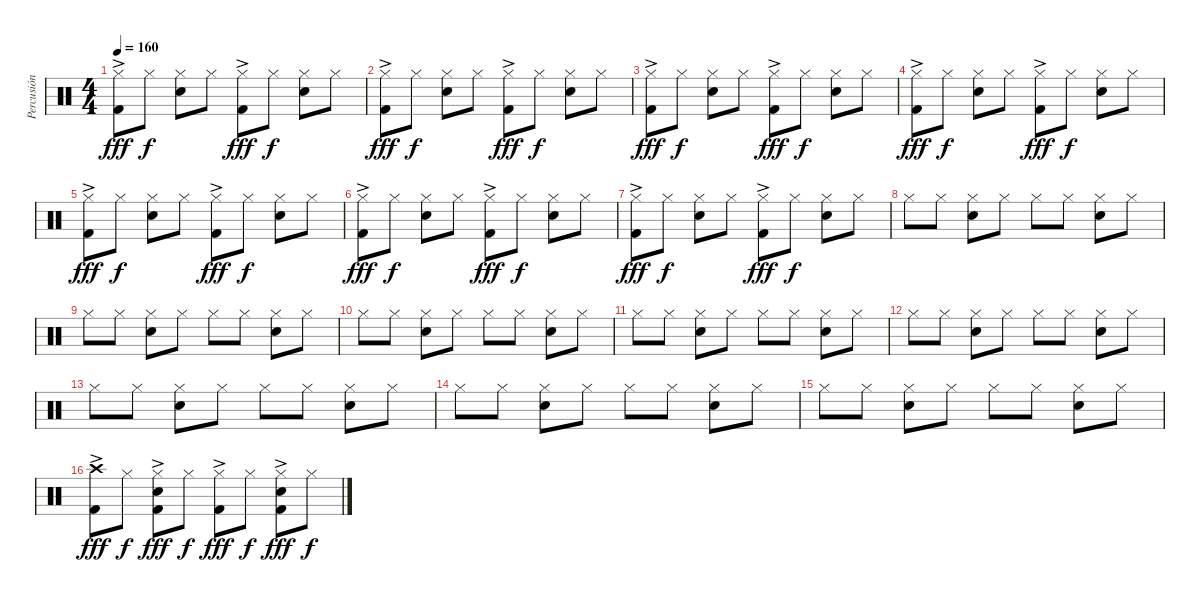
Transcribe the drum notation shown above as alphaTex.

\track ("Percusión" "Percusión") {instrument percussion}
\staff {score}
\articulation defaults
\ts (4 4)
\tempo 160
\clef neutral
\ks c
("Hi-Hat (closed)" "Kick (hit) 2"{ac}).8{dy fff} "Hi-Hat (closed)".8{dy f} ("Hi-Hat (closed)" "Electric Snare (hit)").8 "Hi-Hat (closed)".8 ("Hi-Hat (closed)" "Kick (hit) 2"{ac}).8{dy fff} "Hi-Hat (closed)".8{dy f} ("Hi-Hat (closed)" "Electric Snare (hit)").8 "Hi-Hat (closed)".8 |
("Hi-Hat (closed)" "Kick (hit) 2"{ac}).8{dy fff} "Hi-Hat (closed)".8{dy f} ("Hi-Hat (closed)" "Electric Snare (hit)").8 "Hi-Hat (closed)".8 ("Hi-Hat (closed)" "Kick (hit) 2"{ac}).8{dy fff} "Hi-Hat (closed)".8{dy f} ("Hi-Hat (closed)" "Electric Snare (hit)").8 "Hi-Hat (closed)".8 |
("Hi-Hat (closed)" "Kick (hit) 2"{ac}).8{dy fff} "Hi-Hat (closed)".8{dy f} ("Hi-Hat (closed)" "Electric Snare (hit)").8 "Hi-Hat (closed)".8 ("Hi-Hat (closed)" "Kick (hit) 2"{ac}).8{dy fff} "Hi-Hat (closed)".8{dy f} ("Hi-Hat (closed)" "Electric Snare (hit)").8 "Hi-Hat (closed)".8 |
("Hi-Hat (closed)" "Kick (hit) 2"{ac}).8{dy fff} "Hi-Hat (closed)".8{dy f} ("Hi-Hat (closed)" "Electric Snare (hit)").8 "Hi-Hat (closed)".8 ("Hi-Hat (closed)" "Kick (hit) 2"{ac}).8{dy fff} "Hi-Hat (closed)".8{dy f} ("Hi-Hat (closed)" "Electric Snare (hit)").8 "Hi-Hat (closed)".8 |
("Hi-Hat (closed)" "Kick (hit) 2"{ac}).8{dy fff} "Hi-Hat (closed)".8{dy f} ("Hi-Hat (closed)" "Electric Snare (hit)").8 "Hi-Hat (closed)".8 ("Hi-Hat (closed)" "Kick (hit) 2"{ac}).8{dy fff} "Hi-Hat (closed)".8{dy f} ("Hi-Hat (closed)" "Electric Snare (hit)").8 "Hi-Hat (closed)".8 |
("Hi-Hat (closed)" "Kick (hit) 2"{ac}).8{dy fff} "Hi-Hat (closed)".8{dy f} ("Hi-Hat (closed)" "Electric Snare (hit)").8 "Hi-Hat (closed)".8 ("Hi-Hat (closed)" "Kick (hit) 2"{ac}).8{dy fff} "Hi-Hat (closed)".8{dy f} ("Hi-Hat (closed)" "Electric Snare (hit)").8 "Hi-Hat (closed)".8 |
("Hi-Hat (closed)" "Kick (hit) 2"{ac}).8{dy fff} "Hi-Hat (closed)".8{dy f} ("Hi-Hat (closed)" "Electric Snare (hit)").8 "Hi-Hat (closed)".8 ("Hi-Hat (closed)" "Kick (hit) 2"{ac}).8{dy fff} "Hi-Hat (closed)".8{dy f} ("Hi-Hat (closed)" "Electric Snare (hit)").8 "Hi-Hat (closed)".8 |
"Hi-Hat (closed)".8 "Hi-Hat (closed)".8 ("Hi-Hat (closed)" "Electric Snare (hit)").8 "Hi-Hat (closed)".8 "Hi-Hat (closed)".8 "Hi-Hat (closed)".8 ("Hi-Hat (closed)" "Electric Snare (hit)").8 "Hi-Hat (closed)".8 |
"Hi-Hat (closed)".8 "Hi-Hat (closed)".8 ("Hi-Hat (closed)" "Electric Snare (hit)").8 "Hi-Hat (closed)".8 "Hi-Hat (closed)".8 "Hi-Hat (closed)".8 ("Hi-Hat (closed)" "Electric Snare (hit)").8 "Hi-Hat (closed)".8 |
"Hi-Hat (closed)".8 "Hi-Hat (closed)".8 ("Hi-Hat (closed)" "Electric Snare (hit)").8 "Hi-Hat (closed)".8 "Hi-Hat (closed)".8 "Hi-Hat (closed)".8 ("Hi-Hat (closed)" "Electric Snare (hit)").8 "Hi-Hat (closed)".8 |
"Hi-Hat (closed)".8 "Hi-Hat (closed)".8 ("Hi-Hat (closed)" "Electric Snare (hit)").8 "Hi-Hat (closed)".8 "Hi-Hat (closed)".8 "Hi-Hat (closed)".8 ("Hi-Hat (closed)" "Electric Snare (hit)").8 "Hi-Hat (closed)".8 |
"Hi-Hat (closed)".8 "Hi-Hat (closed)".8 ("Hi-Hat (closed)" "Electric Snare (hit)").8 "Hi-Hat (closed)".8 "Hi-Hat (closed)".8 "Hi-Hat (closed)".8 ("Hi-Hat (closed)" "Electric Snare (hit)").8 "Hi-Hat (closed)".8 |
"Hi-Hat (closed)".8 "Hi-Hat (closed)".8 ("Hi-Hat (closed)" "Electric Snare (hit)").8 "Hi-Hat (closed)".8 "Hi-Hat (closed)".8 "Hi-Hat (closed)".8 ("Hi-Hat (closed)" "Electric Snare (hit)").8 "Hi-Hat (closed)".8 |
"Hi-Hat (closed)".8 "Hi-Hat (closed)".8 ("Hi-Hat (closed)" "Electric Snare (hit)").8 "Hi-Hat (closed)".8 "Hi-Hat (closed)".8 "Hi-Hat (closed)".8 ("Hi-Hat (closed)" "Electric Snare (hit)").8 "Hi-Hat (closed)".8 |
"Hi-Hat (closed)".8 "Hi-Hat (closed)".8 ("Hi-Hat (closed)" "Electric Snare (hit)").8 "Hi-Hat (closed)".8 "Hi-Hat (closed)".8 "Hi-Hat (closed)".8 ("Hi-Hat (closed)" "Electric Snare (hit)").8 "Hi-Hat (closed)".8 |
("Crash high (hit)" "Kick (hit) 2"{ac}).8{dy fff} "Hi-Hat (closed)".8{dy f} ("Hi-Hat (closed)" "Electric Snare (hit)" "Kick (hit) 2"{ac}).8{dy fff} "Hi-Hat (closed)".8{dy f} ("Hi-Hat (closed)" "Kick (hit) 2"{ac}).8{dy fff} "Hi-Hat (closed)".8{dy f} ("Hi-Hat (closed)" "Electric Snare (hit)" "Kick (hit) 2"{ac}).8{dy fff} "Hi-Hat (closed)".8{dy f}
